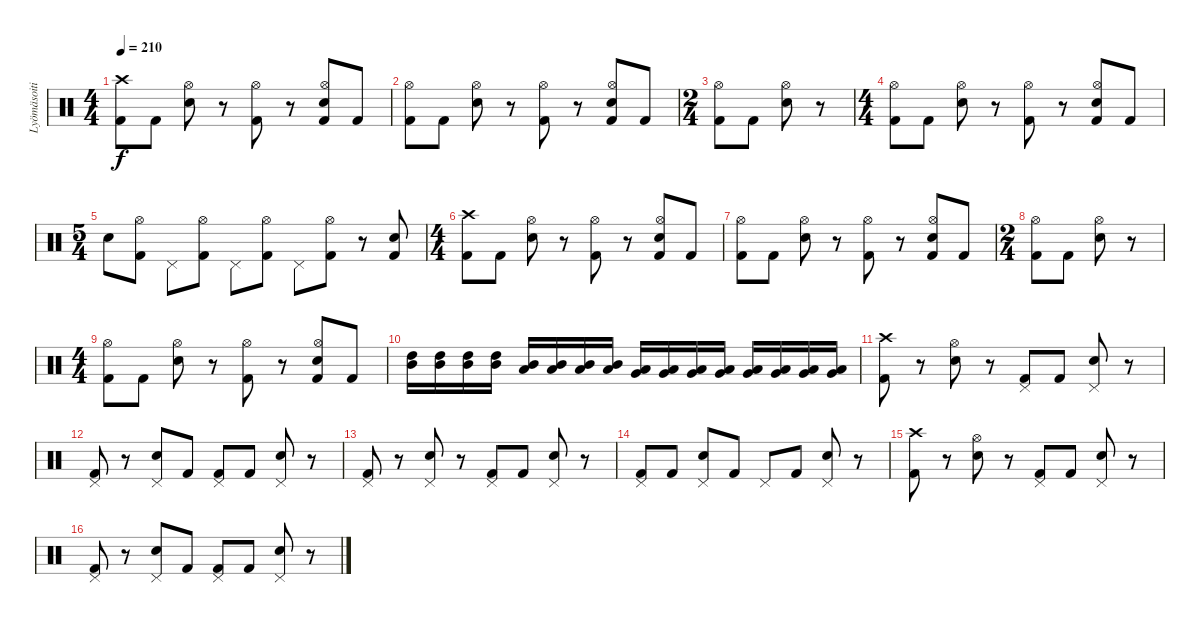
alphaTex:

\track ("Lyömäsoitin" "Lyömäsoiti") {instrument percussion}
\staff {score}
\articulation defaults
\ts (4 4)
\tempo 210
\clef neutral
\ks c
("Crash high (hit)" "Kick (hit) 2").8{dy f} "Kick (hit) 2".8 ("Hi-Hat (open)" "Electric Snare (hit)").8 r.8 ("Hi-Hat (open)" "Kick (hit) 2").8 r.8 ("Hi-Hat (open)" "Electric Snare (hit)" "Kick (hit) 2").8 "Kick (hit) 2".8 |
("Hi-Hat (open)" "Kick (hit) 2").8 "Kick (hit) 2".8 ("Hi-Hat (open)" "Electric Snare (hit)").8 r.8 ("Hi-Hat (open)" "Kick (hit) 2").8 r.8 ("Hi-Hat (open)" "Electric Snare (hit)" "Kick (hit) 2").8 "Kick (hit) 2".8 |
\ts (2 4)
("Hi-Hat (open)" "Kick (hit) 2").8 "Kick (hit) 2".8 ("Hi-Hat (open)" "Electric Snare (hit)").8 r.8 |
\ts (4 4)
("Hi-Hat (open)" "Kick (hit) 2").8 "Kick (hit) 2".8 ("Hi-Hat (open)" "Electric Snare (hit)").8 r.8 ("Hi-Hat (open)" "Kick (hit) 2").8 r.8 ("Hi-Hat (open)" "Electric Snare (hit)" "Kick (hit) 2").8 "Kick (hit) 2".8 |
\ts (5 4)
"Electric Snare (hit)".8 ("Hi-Hat (open)" "Kick (hit) 2").8 "Pedal Hi-Hat (hit)".8 ("Hi-Hat (open)" "Kick (hit) 2").8 "Pedal Hi-Hat (hit)".8 ("Hi-Hat (open)" "Kick (hit) 2").8 "Pedal Hi-Hat (hit)".8 ("Hi-Hat (open)" "Kick (hit) 2").8 r.8 ("Electric Snare (hit)" "Kick (hit) 2").8 |
\ts (4 4)
("Crash high (hit)" "Kick (hit) 2").8 "Kick (hit) 2".8 ("Hi-Hat (open)" "Electric Snare (hit)").8 r.8 ("Hi-Hat (open)" "Kick (hit) 2").8 r.8 ("Hi-Hat (open)" "Electric Snare (hit)" "Kick (hit) 2").8 "Kick (hit) 2".8 |
("Hi-Hat (open)" "Kick (hit) 2").8 "Kick (hit) 2".8 ("Hi-Hat (open)" "Electric Snare (hit)").8 r.8 ("Hi-Hat (open)" "Kick (hit) 2").8 r.8 ("Hi-Hat (open)" "Electric Snare (hit)" "Kick (hit) 2").8 "Kick (hit) 2".8 |
\ts (2 4)
("Hi-Hat (open)" "Kick (hit) 2").8 "Kick (hit) 2".8 ("Hi-Hat (open)" "Electric Snare (hit)").8 r.8 |
\ts (4 4)
("Hi-Hat (open)" "Kick (hit) 2").8 "Kick (hit) 2".8 ("Hi-Hat (open)" "Electric Snare (hit)").8 r.8 ("Hi-Hat (open)" "Kick (hit) 2").8 r.8 ("Hi-Hat (open)" "Electric Snare (hit)" "Kick (hit) 2").8 "Kick (hit) 2".8 |
("High Tom (hit)" "Mid Tom (hit)").16 ("High Tom (hit)" "Mid Tom (hit)").16 ("High Tom (hit)" "Mid Tom (hit)").16 ("High Tom (hit)" "Mid Tom (hit)").16 ("Mid Tom (hit)" "Low Tom (hit)").16 ("Mid Tom (hit)" "Low Tom (hit)").16 ("Mid Tom (hit)" "Low Tom (hit)").16 ("Mid Tom (hit)" "Low Tom (hit)").16 ("Low Tom (hit)" "Very Low Tom (hit)").16 ("Low Tom (hit)" "Very Low Tom (hit)").16 ("Low Tom (hit)" "Very Low Tom (hit)").16 ("Low Tom (hit)" "Very Low Tom (hit)").16 ("Very Low Tom (hit)" "Low Floor Tom (hit)").16 ("Very Low Tom (hit)" "Low Floor Tom (hit)").16 ("Very Low Tom (hit)" "Low Floor Tom (hit)").16 ("Very Low Tom (hit)" "Low Floor Tom (hit)").16 |
("Crash high (hit)" "Kick (hit) 2").8 r.8 ("Hi-Hat (open)" "Electric Snare (hit)").8 r.8 ("Pedal Hi-Hat (hit)" "Kick (hit) 2").8 "Kick (hit) 2".8 ("Pedal Hi-Hat (hit)" "Electric Snare (hit)").8 r.8 |
("Pedal Hi-Hat (hit)" "Kick (hit) 2").8 r.8 ("Pedal Hi-Hat (hit)" "Electric Snare (hit)").8 "Kick (hit) 2".8 ("Pedal Hi-Hat (hit)" "Kick (hit) 2").8 "Kick (hit) 2".8 ("Pedal Hi-Hat (hit)" "Electric Snare (hit)").8 r.8 |
("Pedal Hi-Hat (hit)" "Kick (hit) 2").8 r.8 ("Pedal Hi-Hat (hit)" "Electric Snare (hit)").8 r.8 ("Pedal Hi-Hat (hit)" "Kick (hit) 2").8 "Kick (hit) 2".8 ("Pedal Hi-Hat (hit)" "Electric Snare (hit)").8 r.8 |
("Pedal Hi-Hat (hit)" "Kick (hit) 2").8 "Kick (hit) 2".8 ("Pedal Hi-Hat (hit)" "Electric Snare (hit)").8 "Kick (hit) 2".8 "Pedal Hi-Hat (hit)".8 "Kick (hit) 2".8 ("Pedal Hi-Hat (hit)" "Electric Snare (hit)").8 r.8 |
("Crash high (hit)" "Kick (hit) 2").8 r.8 ("Hi-Hat (open)" "Electric Snare (hit)").8 r.8 ("Pedal Hi-Hat (hit)" "Kick (hit) 2").8 "Kick (hit) 2".8 ("Pedal Hi-Hat (hit)" "Electric Snare (hit)").8 r.8 |
("Pedal Hi-Hat (hit)" "Kick (hit) 2").8 r.8 ("Pedal Hi-Hat (hit)" "Electric Snare (hit)").8 "Kick (hit) 2".8 ("Pedal Hi-Hat (hit)" "Kick (hit) 2").8 "Kick (hit) 2".8 ("Pedal Hi-Hat (hit)" "Electric Snare (hit)").8 r.8
